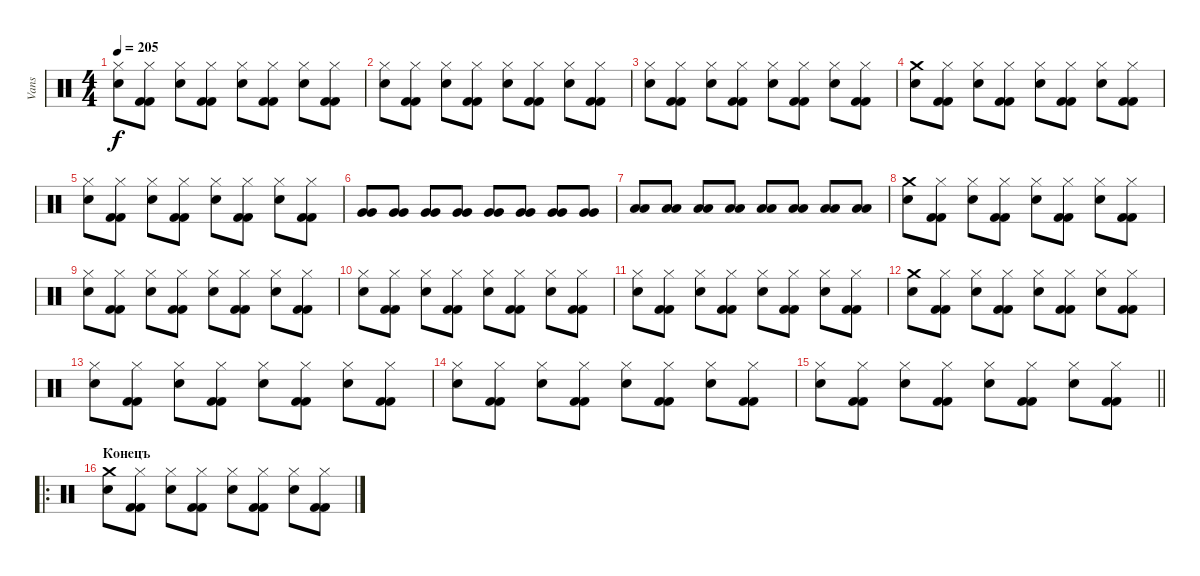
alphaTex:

\track ("Vans" "Vans") {instrument percussion}
\staff {score}
\articulation defaults
\ts (4 4)
\tempo 205
\clef neutral
\ks c
("Hi-Hat (closed)" "Snare (hit) 2").8{dy f} ("Hi-Hat (closed)" "Kick (hit) 2" "Kick (hit) 2").8 ("Hi-Hat (closed)" "Snare (hit) 2").8 ("Hi-Hat (closed)" "Kick (hit) 2" "Kick (hit) 2").8 ("Hi-Hat (closed)" "Snare (hit) 2").8 ("Hi-Hat (closed)" "Kick (hit) 2" "Kick (hit) 2").8 ("Hi-Hat (closed)" "Snare (hit) 2").8 ("Hi-Hat (closed)" "Kick (hit) 2" "Kick (hit) 2").8 |
("Hi-Hat (closed)" "Snare (hit) 2").8 ("Hi-Hat (closed)" "Kick (hit) 2" "Kick (hit) 2").8 ("Hi-Hat (closed)" "Snare (hit) 2").8 ("Hi-Hat (closed)" "Kick (hit) 2" "Kick (hit) 2").8 ("Hi-Hat (closed)" "Snare (hit) 2").8 ("Hi-Hat (closed)" "Kick (hit) 2" "Kick (hit) 2").8 ("Hi-Hat (closed)" "Snare (hit) 2").8 ("Hi-Hat (closed)" "Kick (hit) 2" "Kick (hit) 2").8 |
("Hi-Hat (closed)" "Snare (hit) 2").8 ("Hi-Hat (closed)" "Kick (hit) 2" "Kick (hit) 2").8 ("Hi-Hat (closed)" "Snare (hit) 2").8 ("Hi-Hat (closed)" "Kick (hit) 2" "Kick (hit) 2").8 ("Hi-Hat (closed)" "Snare (hit) 2").8 ("Hi-Hat (closed)" "Kick (hit) 2" "Kick (hit) 2").8 ("Hi-Hat (closed)" "Snare (hit) 2").8 ("Hi-Hat (closed)" "Kick (hit) 2" "Kick (hit) 2").8 |
("Crash medium (hit)" "Snare (hit) 2").8 ("Hi-Hat (closed)" "Kick (hit) 2" "Kick (hit) 2").8 ("Hi-Hat (closed)" "Snare (hit) 2").8 ("Hi-Hat (closed)" "Kick (hit) 2" "Kick (hit) 2").8 ("Hi-Hat (closed)" "Snare (hit) 2").8 ("Hi-Hat (closed)" "Kick (hit) 2" "Kick (hit) 2").8 ("Hi-Hat (closed)" "Snare (hit) 2").8 ("Hi-Hat (closed)" "Kick (hit) 2" "Kick (hit) 2").8 |
("Hi-Hat (closed)" "Snare (hit) 2").8 ("Hi-Hat (closed)" "Kick (hit) 2" "Kick (hit) 2").8 ("Hi-Hat (closed)" "Snare (hit) 2").8 ("Hi-Hat (closed)" "Kick (hit) 2" "Kick (hit) 2").8 ("Hi-Hat (closed)" "Snare (hit) 2").8 ("Hi-Hat (closed)" "Kick (hit) 2" "Kick (hit) 2").8 ("Hi-Hat (closed)" "Snare (hit) 2").8 ("Hi-Hat (closed)" "Kick (hit) 2" "Kick (hit) 2").8 |
("Very Low Tom (hit)" "Very Low Tom (hit)").8 ("Very Low Tom (hit)" "Very Low Tom (hit)").8 ("Very Low Tom (hit)" "Very Low Tom (hit)").8 ("Very Low Tom (hit)" "Very Low Tom (hit)").8 ("Very Low Tom (hit)" "Very Low Tom (hit)").8 ("Very Low Tom (hit)" "Very Low Tom (hit)").8 ("Very Low Tom (hit)" "Very Low Tom (hit)").8 ("Very Low Tom (hit)" "Very Low Tom (hit)").8 |
("Low Tom (hit)" "Low Tom (hit)").8 ("Low Tom (hit)" "Low Tom (hit)").8 ("Low Tom (hit)" "Low Tom (hit)").8 ("Low Tom (hit)" "Low Tom (hit)").8 ("Low Tom (hit)" "Low Tom (hit)").8 ("Low Tom (hit)" "Low Tom (hit)").8 ("Low Tom (hit)" "Low Tom (hit)").8 ("Low Tom (hit)" "Low Tom (hit)").8 |
("Crash medium (hit)" "Snare (hit) 2").8 ("Hi-Hat (closed)" "Kick (hit) 2" "Kick (hit) 2").8 ("Hi-Hat (closed)" "Snare (hit) 2").8 ("Hi-Hat (closed)" "Kick (hit) 2" "Kick (hit) 2").8 ("Hi-Hat (closed)" "Snare (hit) 2").8 ("Hi-Hat (closed)" "Kick (hit) 2" "Kick (hit) 2").8 ("Hi-Hat (closed)" "Snare (hit) 2").8 ("Hi-Hat (closed)" "Kick (hit) 2" "Kick (hit) 2").8 |
("Hi-Hat (closed)" "Snare (hit) 2").8 ("Hi-Hat (closed)" "Kick (hit) 2" "Kick (hit) 2").8 ("Hi-Hat (closed)" "Snare (hit) 2").8 ("Hi-Hat (closed)" "Kick (hit) 2" "Kick (hit) 2").8 ("Hi-Hat (closed)" "Snare (hit) 2").8 ("Hi-Hat (closed)" "Kick (hit) 2" "Kick (hit) 2").8 ("Hi-Hat (closed)" "Snare (hit) 2").8 ("Hi-Hat (closed)" "Kick (hit) 2" "Kick (hit) 2").8 |
("Hi-Hat (closed)" "Snare (hit) 2").8 ("Hi-Hat (closed)" "Kick (hit) 2" "Kick (hit) 2").8 ("Hi-Hat (closed)" "Snare (hit) 2").8 ("Hi-Hat (closed)" "Kick (hit) 2" "Kick (hit) 2").8 ("Hi-Hat (closed)" "Snare (hit) 2").8 ("Hi-Hat (closed)" "Kick (hit) 2" "Kick (hit) 2").8 ("Hi-Hat (closed)" "Snare (hit) 2").8 ("Hi-Hat (closed)" "Kick (hit) 2" "Kick (hit) 2").8 |
("Hi-Hat (closed)" "Snare (hit) 2").8 ("Hi-Hat (closed)" "Kick (hit) 2" "Kick (hit) 2").8 ("Hi-Hat (closed)" "Snare (hit) 2").8 ("Hi-Hat (closed)" "Kick (hit) 2" "Kick (hit) 2").8 ("Hi-Hat (closed)" "Snare (hit) 2").8 ("Hi-Hat (closed)" "Kick (hit) 2" "Kick (hit) 2").8 ("Hi-Hat (closed)" "Snare (hit) 2").8 ("Hi-Hat (closed)" "Kick (hit) 2" "Kick (hit) 2").8 |
("Crash medium (hit)" "Snare (hit) 2").8 ("Hi-Hat (closed)" "Kick (hit) 2" "Kick (hit) 2").8 ("Hi-Hat (closed)" "Snare (hit) 2").8 ("Hi-Hat (closed)" "Kick (hit) 2" "Kick (hit) 2").8 ("Hi-Hat (closed)" "Snare (hit) 2").8 ("Hi-Hat (closed)" "Kick (hit) 2" "Kick (hit) 2").8 ("Hi-Hat (closed)" "Snare (hit) 2").8 ("Hi-Hat (closed)" "Kick (hit) 2" "Kick (hit) 2").8 |
("Hi-Hat (closed)" "Snare (hit) 2").8 ("Hi-Hat (closed)" "Kick (hit) 2" "Kick (hit) 2").8 ("Hi-Hat (closed)" "Snare (hit) 2").8 ("Hi-Hat (closed)" "Kick (hit) 2" "Kick (hit) 2").8 ("Hi-Hat (closed)" "Snare (hit) 2").8 ("Hi-Hat (closed)" "Kick (hit) 2" "Kick (hit) 2").8 ("Hi-Hat (closed)" "Snare (hit) 2").8 ("Hi-Hat (closed)" "Kick (hit) 2" "Kick (hit) 2").8 |
("Hi-Hat (closed)" "Snare (hit) 2").8 ("Hi-Hat (closed)" "Kick (hit) 2" "Kick (hit) 2").8 ("Hi-Hat (closed)" "Snare (hit) 2").8 ("Hi-Hat (closed)" "Kick (hit) 2" "Kick (hit) 2").8 ("Hi-Hat (closed)" "Snare (hit) 2").8 ("Hi-Hat (closed)" "Kick (hit) 2" "Kick (hit) 2").8 ("Hi-Hat (closed)" "Snare (hit) 2").8 ("Hi-Hat (closed)" "Kick (hit) 2" "Kick (hit) 2").8 |
\barLineRight lightlight
("Hi-Hat (closed)" "Snare (hit) 2").8 ("Hi-Hat (closed)" "Kick (hit) 2" "Kick (hit) 2").8 ("Hi-Hat (closed)" "Snare (hit) 2").8 ("Hi-Hat (closed)" "Kick (hit) 2" "Kick (hit) 2").8 ("Hi-Hat (closed)" "Snare (hit) 2").8 ("Hi-Hat (closed)" "Kick (hit) 2" "Kick (hit) 2").8 ("Hi-Hat (closed)" "Snare (hit) 2").8 ("Hi-Hat (closed)" "Kick (hit) 2" "Kick (hit) 2").8 |
\ro
\section ("" "Конецъ")
("Crash medium (hit)" "Snare (hit) 2").8 ("Hi-Hat (closed)" "Kick (hit) 2" "Kick (hit) 2").8 ("Hi-Hat (closed)" "Snare (hit) 2").8 ("Hi-Hat (closed)" "Kick (hit) 2" "Kick (hit) 2").8 ("Hi-Hat (closed)" "Snare (hit) 2").8 ("Hi-Hat (closed)" "Kick (hit) 2" "Kick (hit) 2").8 ("Hi-Hat (closed)" "Snare (hit) 2").8 ("Hi-Hat (closed)" "Kick (hit) 2" "Kick (hit) 2").8
